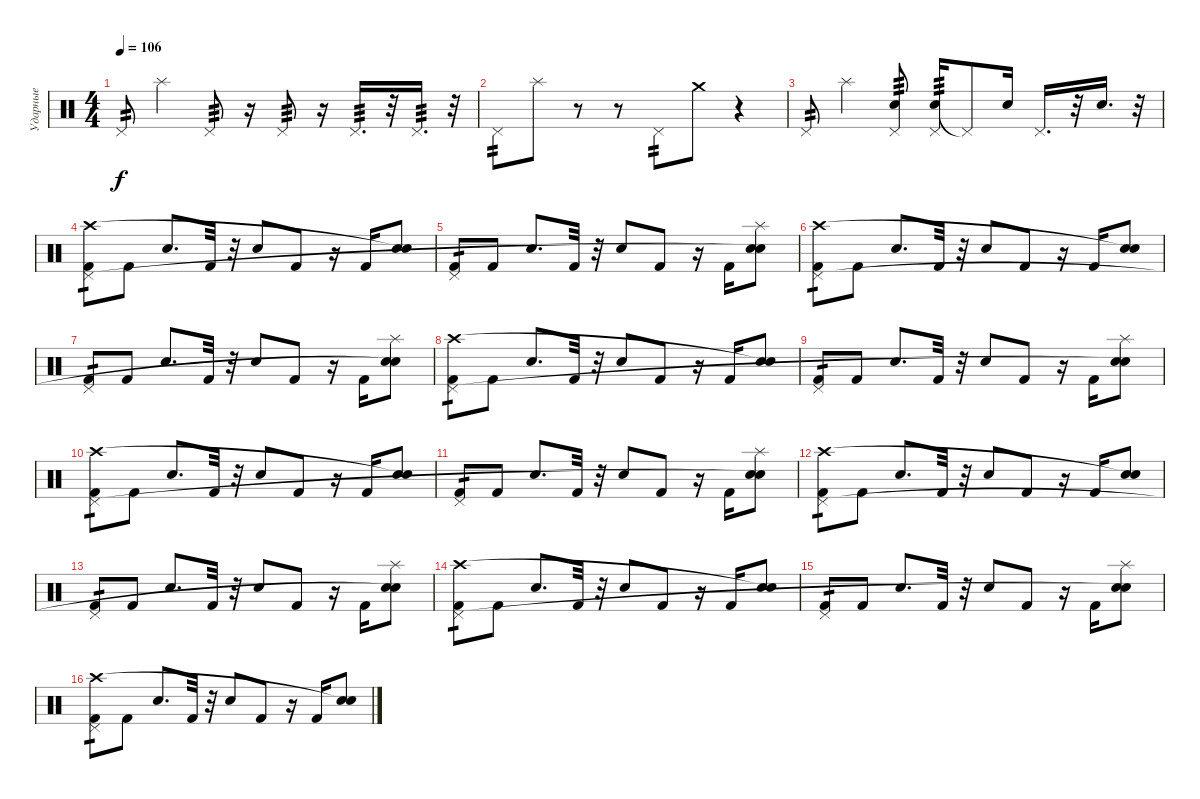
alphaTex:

\track ("Ударные" "Ударные") {instrument percussion}
\staff {score}
\articulation defaults
\ts (4 4)
\tempo 106
\clef neutral
\ks c "Pedal Hi-Hat (hit)".8{tp 2 dy f} "Splash (hit)".4 "Pedal Hi-Hat (hit)".8{tp 3}
r.16 "Pedal Hi-Hat (hit)".8{tp 3} r.16 "Pedal Hi-Hat (hit)".16{d tp 3} r.32 "Pedal Hi-Hat (hit)".16{d tp 3} r.32 |
"Pedal Hi-Hat (hit)".8{tp 2} "Splash (hit)".8 r.8 r.8 "Pedal Hi-Hat (hit)".8{tp 2} "Crash medium (hit)".8 r.4 |
"Pedal Hi-Hat (hit)".8{tp 2} "Splash (hit)".4 ("Electric Snare (hit)" "Pedal Hi-Hat (hit)").8{tp 3} ("Electric Snare (hit)" "Pedal Hi-Hat (hit)").16{tp 3} "Pedal Hi-Hat (hit)"{t}.8 "Electric Snare (hit)".16 "Pedal Hi-Hat (hit)".16{d} r.32 "Electric Snare (hit)".16{d} r.32 |
("Kick (hit) 2" "Crash high (hit)" "Pedal Hi-Hat (hit)").8{tp 1} "Kick (hit) 2".8 "Electric Snare (hit)".8{d} "Kick (hit) 2".32 r.32 "Electric Snare (hit)".8 "Kick (hit) 2".8 r.16 "Kick (hit) 2".16 ("Electric Snare (hit)" "Snare (hit)"{t}).8 |
("Kick (hit) 2" "Pedal Hi-Hat (hit)").8{tp 1} "Kick (hit) 2".8 "Electric Snare (hit)".8{d} "Kick (hit) 2".32 r.32 "Electric Snare (hit)".8 "Kick (hit) 2".8 r.16 "Kick (hit) 2".16 ("Electric Snare (hit)" "Splash (hit)" "Snare (hit)"{t}).8 |
("Kick (hit) 2" "Crash high (hit)" "Pedal Hi-Hat (hit)").8{tp 1} "Kick (hit) 2".8 "Electric Snare (hit)".8{d} "Kick (hit) 2".32 r.32 "Electric Snare (hit)".8 "Kick (hit) 2".8 r.16 "Kick (hit) 2".16 ("Electric Snare (hit)" "Snare (hit)"{t}).8 |
("Kick (hit) 2" "Pedal Hi-Hat (hit)").8{tp 1} "Kick (hit) 2".8 "Electric Snare (hit)".8{d} "Kick (hit) 2".32 r.32 "Electric Snare (hit)".8 "Kick (hit) 2".8 r.16 "Kick (hit) 2".16 ("Electric Snare (hit)" "Splash (hit)" "Snare (hit)"{t}).8 |
("Kick (hit) 2" "Crash high (hit)" "Pedal Hi-Hat (hit)").8{tp 1} "Kick (hit) 2".8 "Electric Snare (hit)".8{d} "Kick (hit) 2".32 r.32 "Electric Snare (hit)".8 "Kick (hit) 2".8 r.16 "Kick (hit) 2".16 ("Electric Snare (hit)" "Snare (hit)"{t}).8 |
("Kick (hit) 2" "Pedal Hi-Hat (hit)").8{tp 1} "Kick (hit) 2".8 "Electric Snare (hit)".8{d} "Kick (hit) 2".32 r.32 "Electric Snare (hit)".8 "Kick (hit) 2".8 r.16 "Kick (hit) 2".16 ("Electric Snare (hit)" "Splash (hit)" "Snare (hit)"{t}).8 |
("Kick (hit) 2" "Crash high (hit)" "Pedal Hi-Hat (hit)").8{tp 1} "Kick (hit) 2".8 "Electric Snare (hit)".8{d} "Kick (hit) 2".32 r.32 "Electric Snare (hit)".8 "Kick (hit) 2".8 r.16 "Kick (hit) 2".16 ("Electric Snare (hit)" "Snare (hit)"{t}).8 |
("Kick (hit) 2" "Pedal Hi-Hat (hit)").8{tp 1} "Kick (hit) 2".8 "Electric Snare (hit)".8{d} "Kick (hit) 2".32 r.32 "Electric Snare (hit)".8 "Kick (hit) 2".8 r.16 "Kick (hit) 2".16 ("Electric Snare (hit)" "Splash (hit)" "Snare (hit)"{t}).8 |
("Kick (hit) 2" "Crash high (hit)" "Pedal Hi-Hat (hit)").8{tp 1} "Kick (hit) 2".8 "Electric Snare (hit)".8{d} "Kick (hit) 2".32 r.32 "Electric Snare (hit)".8 "Kick (hit) 2".8 r.16 "Kick (hit) 2".16 ("Electric Snare (hit)" "Snare (hit)"{t}).8 |
("Kick (hit) 2" "Pedal Hi-Hat (hit)").8{tp 1} "Kick (hit) 2".8 "Electric Snare (hit)".8{d} "Kick (hit) 2".32 r.32 "Electric Snare (hit)".8 "Kick (hit) 2".8 r.16 "Kick (hit) 2".16 ("Electric Snare (hit)" "Splash (hit)" "Snare (hit)"{t}).8 |
("Kick (hit) 2" "Crash high (hit)" "Pedal Hi-Hat (hit)").8{tp 1} "Kick (hit) 2".8 "Electric Snare (hit)".8{d} "Kick (hit) 2".32 r.32 "Electric Snare (hit)".8 "Kick (hit) 2".8 r.16 "Kick (hit) 2".16 ("Electric Snare (hit)" "Snare (hit)"{t}).8 |
("Kick (hit) 2" "Pedal Hi-Hat (hit)").8{tp 1} "Kick (hit) 2".8 "Electric Snare (hit)".8{d} "Kick (hit) 2".32 r.32 "Electric Snare (hit)".8 "Kick (hit) 2".8 r.16 "Kick (hit) 2".16 ("Electric Snare (hit)" "Splash (hit)" "Snare (hit)"{t}).8 |
("Kick (hit) 2" "Crash high (hit)" "Pedal Hi-Hat (hit)").8{tp 1} "Kick (hit) 2".8 "Electric Snare (hit)".8{d} "Kick (hit) 2".32 r.32 "Electric Snare (hit)".8 "Kick (hit) 2".8 r.16 "Kick (hit) 2".16 ("Electric Snare (hit)" "Snare (hit)"{t}).8
